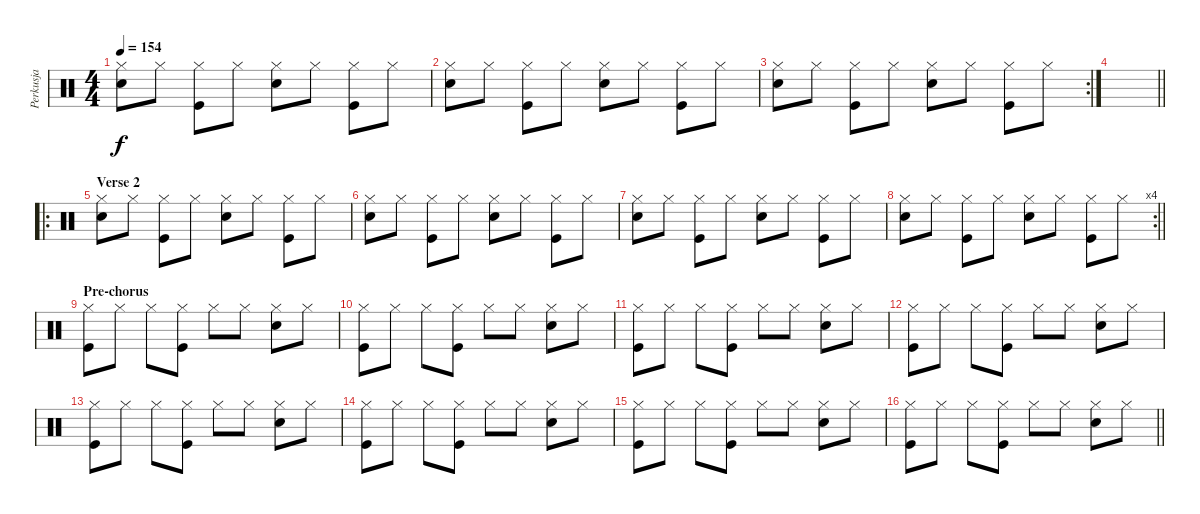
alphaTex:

\track ("Perkusja" "Perkusja") {instrument percussion}
\staff {score}
\articulation defaults
\ts (4 4)
\tempo 154
\clef neutral
\ks c
("Hi-Hat (closed)" "Snare (hit) 2").8{dy f} "Hi-Hat (closed)".8 ("Hi-Hat (closed)" "Kick (hit)").8 "Hi-Hat (closed)".8 ("Snare (hit) 2" "Hi-Hat (closed)").8 "Hi-Hat (closed)".8 ("Hi-Hat (closed)" "Kick (hit)").8 "Hi-Hat (closed)".8 |
("Hi-Hat (closed)" "Snare (hit) 2").8 "Hi-Hat (closed)".8 ("Hi-Hat (closed)" "Kick (hit)").8 "Hi-Hat (closed)".8 ("Snare (hit) 2" "Hi-Hat (closed)").8 "Hi-Hat (closed)".8 ("Hi-Hat (closed)" "Kick (hit)").8 "Hi-Hat (closed)".8 |
\rc 2
("Hi-Hat (closed)" "Snare (hit) 2").8 "Hi-Hat (closed)".8 ("Hi-Hat (closed)" "Kick (hit)").8 "Hi-Hat (closed)".8 ("Snare (hit) 2" "Hi-Hat (closed)").8 "Hi-Hat (closed)".8 ("Hi-Hat (closed)" "Kick (hit)").8 "Hi-Hat (closed)".8 |
\barLineRight lightlight
|
\ro
\section ("" "Verse 2")
("Hi-Hat (closed)" "Snare (hit) 2").8 "Hi-Hat (closed)".8 ("Hi-Hat (closed)" "Kick (hit)").8 "Hi-Hat (closed)".8 ("Snare (hit) 2" "Hi-Hat (closed)").8 "Hi-Hat (closed)".8 ("Hi-Hat (closed)" "Kick (hit)").8 "Hi-Hat (closed)".8 |
("Hi-Hat (closed)" "Snare (hit) 2").8 "Hi-Hat (closed)".8 ("Hi-Hat (closed)" "Kick (hit)").8 "Hi-Hat (closed)".8 ("Snare (hit) 2" "Hi-Hat (closed)").8 "Hi-Hat (closed)".8 ("Hi-Hat (closed)" "Kick (hit)").8 "Hi-Hat (closed)".8 |
("Hi-Hat (closed)" "Snare (hit) 2").8 "Hi-Hat (closed)".8 ("Hi-Hat (closed)" "Kick (hit)").8 "Hi-Hat (closed)".8 ("Snare (hit) 2" "Hi-Hat (closed)").8 "Hi-Hat (closed)".8 ("Hi-Hat (closed)" "Kick (hit)").8 "Hi-Hat (closed)".8 |
\rc 4
\barLineRight lightlight
("Hi-Hat (closed)" "Snare (hit) 2").8 "Hi-Hat (closed)".8 ("Hi-Hat (closed)" "Kick (hit)").8 "Hi-Hat (closed)".8 ("Snare (hit) 2" "Hi-Hat (closed)").8 "Hi-Hat (closed)".8 ("Hi-Hat (closed)" "Kick (hit)").8 "Hi-Hat (closed)".8 |
\section ("" "Pre-chorus")
("Hi-Hat (closed)" "Kick (hit)").8 "Hi-Hat (closed)".8 "Hi-Hat (closed)".8 ("Hi-Hat (closed)" "Kick (hit)").8 "Hi-Hat (closed)".8 "Hi-Hat (closed)".8 ("Hi-Hat (closed)" "Snare (hit) 2").8 "Hi-Hat (closed)".8 |
("Hi-Hat (closed)" "Kick (hit)").8 "Hi-Hat (closed)".8 "Hi-Hat (closed)".8 ("Hi-Hat (closed)" "Kick (hit)").8 "Hi-Hat (closed)".8 "Hi-Hat (closed)".8 ("Hi-Hat (closed)" "Snare (hit) 2").8 "Hi-Hat (closed)".8 |
("Hi-Hat (closed)" "Kick (hit)").8 "Hi-Hat (closed)".8 "Hi-Hat (closed)".8 ("Hi-Hat (closed)" "Kick (hit)").8 "Hi-Hat (closed)".8 "Hi-Hat (closed)".8 ("Hi-Hat (closed)" "Snare (hit) 2").8 "Hi-Hat (closed)".8 |
("Hi-Hat (closed)" "Kick (hit)").8 "Hi-Hat (closed)".8 "Hi-Hat (closed)".8 ("Hi-Hat (closed)" "Kick (hit)").8 "Hi-Hat (closed)".8 "Hi-Hat (closed)".8 ("Hi-Hat (closed)" "Snare (hit) 2").8 "Hi-Hat (closed)".8 |
("Hi-Hat (closed)" "Kick (hit)").8 "Hi-Hat (closed)".8 "Hi-Hat (closed)".8 ("Hi-Hat (closed)" "Kick (hit)").8 "Hi-Hat (closed)".8 "Hi-Hat (closed)".8 ("Hi-Hat (closed)" "Snare (hit) 2").8 "Hi-Hat (closed)".8 |
("Hi-Hat (closed)" "Kick (hit)").8 "Hi-Hat (closed)".8 "Hi-Hat (closed)".8 ("Hi-Hat (closed)" "Kick (hit)").8 "Hi-Hat (closed)".8 "Hi-Hat (closed)".8 ("Hi-Hat (closed)" "Snare (hit) 2").8 "Hi-Hat (closed)".8 |
("Hi-Hat (closed)" "Kick (hit)").8 "Hi-Hat (closed)".8 "Hi-Hat (closed)".8 ("Hi-Hat (closed)" "Kick (hit)").8 "Hi-Hat (closed)".8 "Hi-Hat (closed)".8 ("Hi-Hat (closed)" "Snare (hit) 2").8 "Hi-Hat (closed)".8 |
\barLineRight lightlight
("Hi-Hat (closed)" "Kick (hit)").8 "Hi-Hat (closed)".8 "Hi-Hat (closed)".8 ("Hi-Hat (closed)" "Kick (hit)").8 "Hi-Hat (closed)".8 "Hi-Hat (closed)".8 ("Hi-Hat (closed)" "Snare (hit) 2").8 "Hi-Hat (closed)".8
